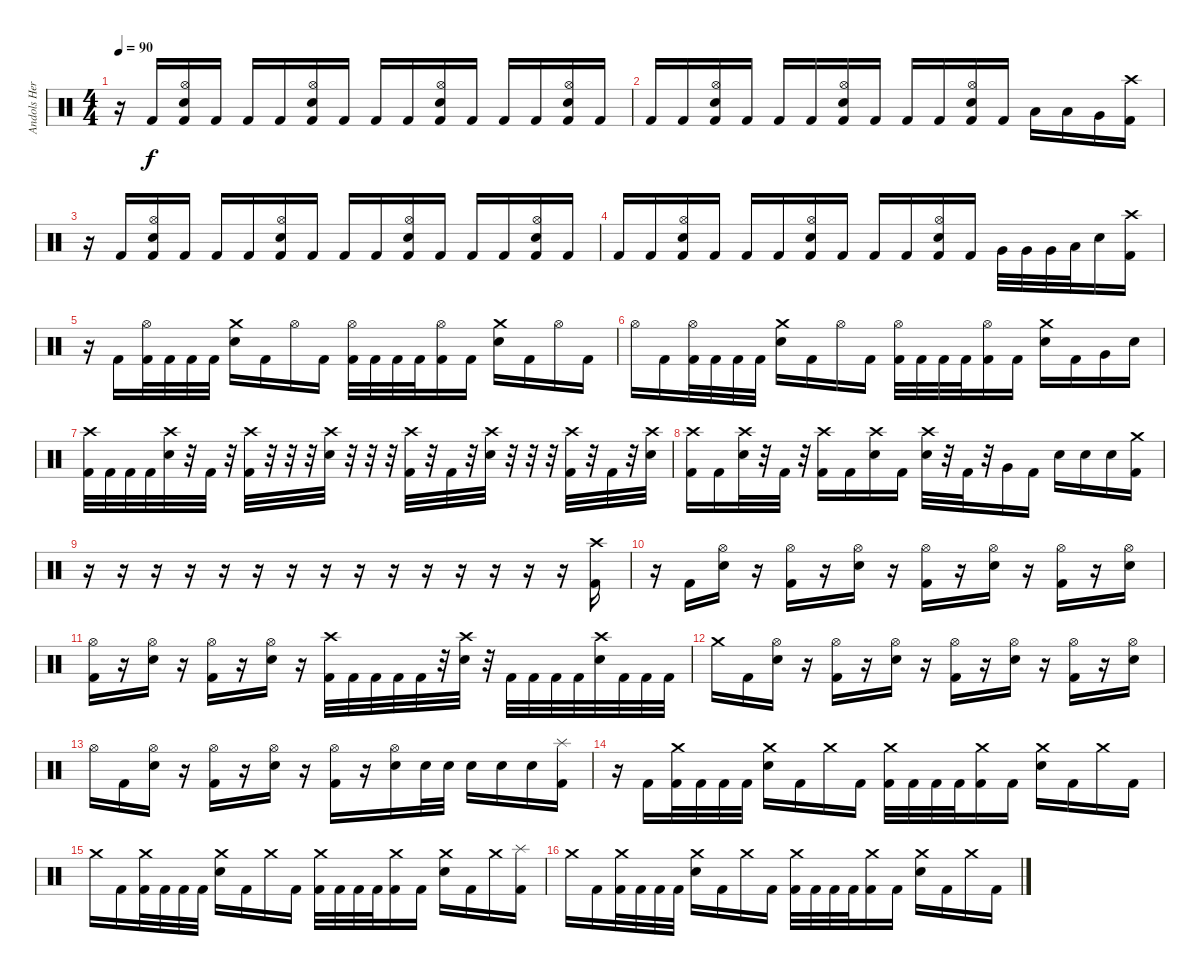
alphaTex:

\track ("Andols Herrick" "Andols Her") {instrument percussion}
\staff {score}
\articulation defaults
\ts (4 4)
\tempo 90
\clef neutral
\ks c
r.16{dy f} "Kick (hit) 2".16 ("Hi-Hat (open)" "Electric Snare (hit)" "Kick (hit) 2").16 "Kick (hit) 2".16 "Kick (hit) 2".16 "Kick (hit) 2".16 ("Hi-Hat (open)" "Electric Snare (hit)" "Kick (hit) 2").16 "Kick (hit) 2".16 "Kick (hit) 2".16 "Kick (hit) 2".16 ("Hi-Hat (open)" "Electric Snare (hit)" "Kick (hit) 2").16 "Kick (hit) 2".16 "Kick (hit) 2".16 "Kick (hit) 2".16 ("Hi-Hat (open)" "Electric Snare (hit)" "Kick (hit) 2").16 "Kick (hit) 2".16 |
"Kick (hit) 2".16 "Kick (hit) 2".16 ("Hi-Hat (open)" "Electric Snare (hit)" "Kick (hit) 2").16 "Kick (hit) 2".16 "Kick (hit) 2".16 "Kick (hit) 2".16 ("Hi-Hat (open)" "Electric Snare (hit)" "Kick (hit) 2").16 "Kick (hit) 2".16 "Kick (hit) 2".16 "Kick (hit) 2".16 ("Hi-Hat (open)" "Electric Snare (hit)" "Kick (hit) 2").16 "Kick (hit) 2".16 "Low Tom (hit)".16 "Low Tom (hit)".16 "Very Low Tom (hit)".16 ("Crash high (hit)" "Kick (hit) 2").16 |
r.16 "Kick (hit) 2".16 ("Hi-Hat (open)" "Electric Snare (hit)" "Kick (hit) 2").16 "Kick (hit) 2".16 "Kick (hit) 2".16 "Kick (hit) 2".16 ("Hi-Hat (open)" "Electric Snare (hit)" "Kick (hit) 2").16 "Kick (hit) 2".16 "Kick (hit) 2".16 "Kick (hit) 2".16 ("Hi-Hat (open)" "Electric Snare (hit)" "Kick (hit) 2").16 "Kick (hit) 2".16 "Kick (hit) 2".16 "Kick (hit) 2".16 ("Hi-Hat (open)" "Electric Snare (hit)" "Kick (hit) 2").16 "Kick (hit) 2".16 |
"Kick (hit) 2".16 "Kick (hit) 2".16 ("Hi-Hat (open)" "Electric Snare (hit)" "Kick (hit) 2").16 "Kick (hit) 2".16 "Kick (hit) 2".16 "Kick (hit) 2".16 ("Hi-Hat (open)" "Electric Snare (hit)" "Kick (hit) 2").16 "Kick (hit) 2".16 "Kick (hit) 2".16 "Kick (hit) 2".16 ("Hi-Hat (open)" "Electric Snare (hit)" "Kick (hit) 2").16 "Kick (hit) 2".16 "Very Low Tom (hit)".32 "Very Low Tom (hit)".32 "Very Low Tom (hit)".32 "Low Tom (hit)".32 "Electric Snare (hit)".16 ("Crash high (hit)" "Kick (hit) 2").16 |
r.16 "Kick (hit) 2".16 ("Hi-Hat (open)" "Kick (hit) 2").32 "Kick (hit) 2".32 "Kick (hit) 2".32 "Kick (hit) 2".32 ("Crash medium (hit)" "Electric Snare (hit)").16 "Kick (hit) 2".16 "Hi-Hat (open)".16 "Kick (hit) 2".16 ("Hi-Hat (open)" "Kick (hit) 2").32 "Kick (hit) 2".32 "Kick (hit) 2".32 "Kick (hit) 2".32 ("Hi-Hat (open)" "Kick (hit) 2").16 "Kick (hit) 2".16 ("Crash medium (hit)" "Electric Snare (hit)").16 "Kick (hit) 2".16 "Hi-Hat (open)".16 "Kick (hit) 2".16 |
"Hi-Hat (open)".16 "Kick (hit) 2".16 ("Hi-Hat (open)" "Kick (hit) 2").32 "Kick (hit) 2".32 "Kick (hit) 2".32 "Kick (hit) 2".32 ("Crash medium (hit)" "Electric Snare (hit)").16 "Kick (hit) 2".16 "Hi-Hat (open)".16 "Kick (hit) 2".16 ("Hi-Hat (open)" "Kick (hit) 2").32 "Kick (hit) 2".32 "Kick (hit) 2".32 "Kick (hit) 2".32 ("Hi-Hat (open)" "Kick (hit) 2").16 "Kick (hit) 2".16 ("Crash medium (hit)" "Electric Snare (hit)").16 "Kick (hit) 2".16 "Very Low Tom (hit)".16 "Electric Snare (hit)".16 |
("Crash high (hit)" "Kick (hit) 2").32 "Kick (hit) 2".32 "Kick (hit) 2".32 "Kick (hit) 2".32 ("Crash high (hit)" "Electric Snare (hit)").32 r.32 "Kick (hit) 2".32 r.32 ("Crash high (hit)" "Kick (hit) 2").32 r.32 r.32 r.32 ("Crash high (hit)" "Electric Snare (hit)").32 r.32 r.32 r.32 ("Crash high (hit)" "Kick (hit) 2").32 r.32 "Kick (hit) 2".32 r.32 ("Crash high (hit)" "Electric Snare (hit)").32 r.32 r.32 r.32 ("Crash high (hit)" "Kick (hit) 2").32 r.32 "Kick (hit) 2".32 r.32 ("Crash high (hit)" "Electric Snare (hit)").32 |
("Crash high (hit)" "Kick (hit) 2").16 "Kick (hit) 2".16 ("Crash high (hit)" "Electric Snare (hit)").32 r.32 "Kick (hit) 2".32 r.32 ("Crash high (hit)" "Kick (hit) 2").16 "Kick (hit) 2".16 ("Crash high (hit)" "Electric Snare (hit)").16 "Kick (hit) 2".16 ("Crash high (hit)" "Electric Snare (hit)").32 r.32 "Kick (hit) 2".32 r.32 "Very Low Tom (hit)".16 "Kick (hit) 2".16 "Electric Snare (hit)".16 "Electric Snare (hit)".16 "Electric Snare (hit)".16 ("Crash medium (hit)" "Kick (hit) 2").16 |
r.16 r.16 r.16 r.16 r.16 r.16 r.16 r.16 r.16 r.16 r.16 r.16 r.16 r.16 r.16 ("Crash high (hit)" "Kick (hit) 2").16 |
r.16 "Kick (hit) 2".16 ("Hi-Hat (open)" "Electric Snare (hit)").16 r.16 ("Hi-Hat (open)" "Kick (hit) 2").16 r.16 ("Hi-Hat (open)" "Electric Snare (hit)").16 r.16 ("Hi-Hat (open)" "Kick (hit) 2").16 r.16 ("Hi-Hat (open)" "Electric Snare (hit)").16 r.16 ("Hi-Hat (open)" "Kick (hit) 2").16 r.16 ("Hi-Hat (open)" "Electric Snare (hit)").16 |
("Hi-Hat (open)" "Kick (hit) 2").16 r.16 ("Hi-Hat (open)" "Electric Snare (hit)").16 r.16 ("Hi-Hat (open)" "Kick (hit) 2").16 r.16 ("Hi-Hat (open)" "Electric Snare (hit)").16 r.16 ("Crash high (hit)" "Kick (hit) 2").32 "Kick (hit) 2".32 "Kick (hit) 2".32 "Kick (hit) 2".32 "Kick (hit) 2".32 r.32 ("Crash high (hit)" "Electric Snare (hit)").32 r.32 "Kick (hit) 2".32 "Kick (hit) 2".32 "Kick (hit) 2".32 "Kick (hit) 2".32 ("Crash high (hit)" "Electric Snare (hit)").32 "Kick (hit) 2".32 "Kick (hit) 2".32 "Kick (hit) 2".32 |
"Crash medium (hit)".16 "Kick (hit) 2".16 ("Hi-Hat (open)" "Electric Snare (hit)").16 r.16 ("Hi-Hat (open)" "Kick (hit) 2").16 r.16 ("Hi-Hat (open)" "Electric Snare (hit)").16 r.16 ("Hi-Hat (open)" "Kick (hit) 2").16 r.16 ("Hi-Hat (open)" "Electric Snare (hit)").16 r.16 ("Hi-Hat (open)" "Kick (hit) 2").16 r.16 ("Hi-Hat (open)" "Electric Snare (hit)").16 |
"Hi-Hat (open)".16 "Kick (hit) 2".16 ("Hi-Hat (open)" "Electric Snare (hit)").16 r.16 ("Hi-Hat (open)" "Kick (hit) 2").16 r.16 ("Hi-Hat (open)" "Electric Snare (hit)").16 r.16 ("Hi-Hat (open)" "Kick (hit) 2").16 r.16 ("Hi-Hat (open)" "Electric Snare (hit)").16 "Electric Snare (hit)".32 "Electric Snare (hit)".32 "Electric Snare (hit)".16 "Electric Snare (hit)".16 "Electric Snare (hit)".16 ("Splash (hit)" "Kick (hit) 2").16 |
r.16 "Kick (hit) 2".16 ("Crash medium (hit)" "Kick (hit) 2").32 "Kick (hit) 2".32 "Kick (hit) 2".32 "Kick (hit) 2".32 ("Crash medium (hit)" "Electric Snare (hit)").16 "Kick (hit) 2".16 "Crash medium (hit)".16 "Kick (hit) 2".16 ("Crash medium (hit)" "Kick (hit) 2").32 "Kick (hit) 2".32 "Kick (hit) 2".32 "Kick (hit) 2".32 ("Crash medium (hit)" "Kick (hit) 2").16 "Kick (hit) 2".16 ("Crash medium (hit)" "Electric Snare (hit)").16 "Kick (hit) 2".16 "Crash medium (hit)".16 "Kick (hit) 2".16 |
"Crash medium (hit)".16 "Kick (hit) 2".16 ("Crash medium (hit)" "Kick (hit) 2").32 "Kick (hit) 2".32 "Kick (hit) 2".32 "Kick (hit) 2".32 ("Crash medium (hit)" "Electric Snare (hit)").16 "Kick (hit) 2".16 "Crash medium (hit)".16 "Kick (hit) 2".16 ("Crash medium (hit)" "Kick (hit) 2").32 "Kick (hit) 2".32 "Kick (hit) 2".32 "Kick (hit) 2".32 ("Crash medium (hit)" "Kick (hit) 2").16 "Kick (hit) 2".16 ("Crash medium (hit)" "Electric Snare (hit)").16 "Kick (hit) 2".16 "Crash medium (hit)".16 ("Splash (hit)" "Kick (hit) 2").16 |
"Crash medium (hit)".16 "Kick (hit) 2".16 ("Crash medium (hit)" "Kick (hit) 2").32 "Kick (hit) 2".32 "Kick (hit) 2".32 "Kick (hit) 2".32 ("Crash medium (hit)" "Electric Snare (hit)").16 "Kick (hit) 2".16 "Crash medium (hit)".16 "Kick (hit) 2".16 ("Crash medium (hit)" "Kick (hit) 2").32 "Kick (hit) 2".32 "Kick (hit) 2".32 "Kick (hit) 2".32 ("Crash medium (hit)" "Kick (hit) 2").16 "Kick (hit) 2".16 ("Crash medium (hit)" "Electric Snare (hit)").16 "Kick (hit) 2".16 "Crash medium (hit)".16 "Kick (hit) 2".16
